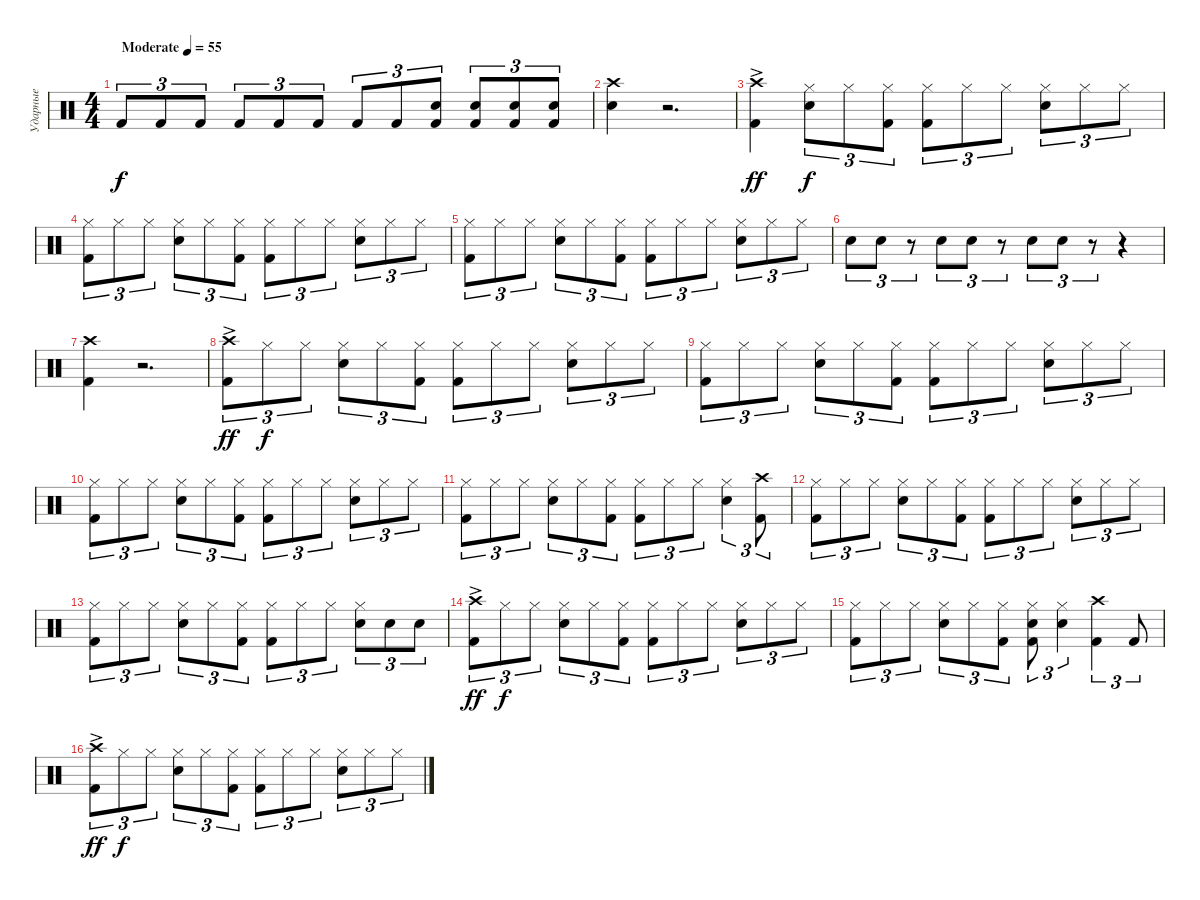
\track ("Ударные" "Ударные") {instrument percussion}
\staff
\articulation defaults
\ts (4 4)
\tempo (55 "Moderate")
\clef neutral
\ks c "Kick (hit) 2".8{tu (3 2) dy f} "Kick (hit) 2".8{tu (3 2)} "Kick (hit) 2".8{tu (3 2)} "Kick (hit) 2".8{tu (3 2)} "Kick (hit) 2".8{tu (3 2)} "Kick (hit) 2".8{tu (3 2)} "Kick (hit) 2".8{tu (3 2)} "Kick (hit) 2".8{tu (3 2)}
("Kick (hit) 2" "Snare (hit) 2").8{tu (3 2)} ("Kick (hit) 2" "Snare (hit) 2").8{tu (3 2)} ("Kick (hit) 2" "Snare (hit) 2").8{tu (3 2)} ("Kick (hit) 2" "Snare (hit) 2").8{tu (3 2)} |
("Snare (hit) 2" "Crash high (hit)").4 r.2{d} |
("Kick (hit) 2" "Crash high (hit)"{ac}).4{dy ff} ("Snare (hit) 2" "Hi-Hat (closed)").8{tu (3 2) dy f} "Hi-Hat (closed)".8{tu (3 2)} ("Kick (hit) 2" "Hi-Hat (closed)").8{tu (3 2)} ("Kick (hit) 2" "Hi-Hat (closed)").8{tu (3 2)} "Hi-Hat (closed)".8{tu (3 2)} "Hi-Hat (closed)".8{tu (3 2)} ("Snare (hit) 2" "Hi-Hat (closed)").8{tu (3 2)} "Hi-Hat (closed)".8{tu (3 2)} "Hi-Hat (closed)".8{tu (3 2)} |
("Kick (hit) 2" "Hi-Hat (closed)").8{tu (3 2)} "Hi-Hat (closed)".8{tu (3 2)} "Hi-Hat (closed)".8{tu (3 2)} ("Snare (hit) 2" "Hi-Hat (closed)").8{tu (3 2)} "Hi-Hat (closed)".8{tu (3 2)} ("Kick (hit) 2" "Hi-Hat (closed)").8{tu (3 2)} ("Kick (hit) 2" "Hi-Hat (closed)").8{tu (3 2)} "Hi-Hat (closed)".8{tu (3 2)} "Hi-Hat (closed)".8{tu (3 2)} ("Snare (hit) 2" "Hi-Hat (closed)").8{tu (3 2)} "Hi-Hat (closed)".8{tu (3 2)} "Hi-Hat (closed)".8{tu (3 2)} |
("Kick (hit) 2" "Hi-Hat (closed)").8{tu (3 2)} "Hi-Hat (closed)".8{tu (3 2)} "Hi-Hat (closed)".8{tu (3 2)} ("Snare (hit) 2" "Hi-Hat (closed)").8{tu (3 2)} "Hi-Hat (closed)".8{tu (3 2)} ("Kick (hit) 2" "Hi-Hat (closed)").8{tu (3 2)} ("Kick (hit) 2" "Hi-Hat (closed)").8{tu (3 2)} "Hi-Hat (closed)".8{tu (3 2)} "Hi-Hat (closed)".8{tu (3 2)} ("Snare (hit) 2" "Hi-Hat (closed)").8{tu (3 2)} "Hi-Hat (closed)".8{tu (3 2)} "Hi-Hat (closed)".8{tu (3 2)} |
"Snare (hit) 2".8{tu (3 2)} "Snare (hit) 2".8{tu (3 2)} r.8{tu (3 2)} "Snare (hit) 2".8{tu (3 2)} "Snare (hit) 2".8{tu (3 2)} r.8{tu (3 2)} "Snare (hit) 2".8{tu (3 2)} "Snare (hit) 2".8{tu (3 2)} r.8{tu (3 2)} r.4 |
("Kick (hit) 2" "Crash high (hit)").4 r.2{d} |
("Kick (hit) 2" "Crash high (hit)"{ac}).8{tu (3 2) dy ff} "Hi-Hat (closed)".8{tu (3 2) dy f} "Hi-Hat (closed)".8{tu (3 2)} ("Snare (hit) 2" "Hi-Hat (closed)").8{tu (3 2)} "Hi-Hat (closed)".8{tu (3 2)} ("Kick (hit) 2" "Hi-Hat (closed)").8{tu (3 2)} ("Kick (hit) 2" "Hi-Hat (closed)").8{tu (3 2)} "Hi-Hat (closed)".8{tu (3 2)} "Hi-Hat (closed)".8{tu (3 2)} ("Snare (hit) 2" "Hi-Hat (closed)").8{tu (3 2)} "Hi-Hat (closed)".8{tu (3 2)} "Hi-Hat (closed)".8{tu (3 2)} |
("Kick (hit) 2" "Hi-Hat (closed)").8{tu (3 2)} "Hi-Hat (closed)".8{tu (3 2)} "Hi-Hat (closed)".8{tu (3 2)} ("Snare (hit) 2" "Hi-Hat (closed)").8{tu (3 2)} "Hi-Hat (closed)".8{tu (3 2)} ("Kick (hit) 2" "Hi-Hat (closed)").8{tu (3 2)} ("Kick (hit) 2" "Hi-Hat (closed)").8{tu (3 2)} "Hi-Hat (closed)".8{tu (3 2)} "Hi-Hat (closed)".8{tu (3 2)} ("Snare (hit) 2" "Hi-Hat (closed)").8{tu (3 2)} "Hi-Hat (closed)".8{tu (3 2)} "Hi-Hat (closed)".8{tu (3 2)} |
("Kick (hit) 2" "Hi-Hat (closed)").8{tu (3 2)} "Hi-Hat (closed)".8{tu (3 2)} "Hi-Hat (closed)".8{tu (3 2)} ("Snare (hit) 2" "Hi-Hat (closed)").8{tu (3 2)} "Hi-Hat (closed)".8{tu (3 2)} ("Kick (hit) 2" "Hi-Hat (closed)").8{tu (3 2)} ("Kick (hit) 2" "Hi-Hat (closed)").8{tu (3 2)} "Hi-Hat (closed)".8{tu (3 2)} "Hi-Hat (closed)".8{tu (3 2)} ("Snare (hit) 2" "Hi-Hat (closed)").8{tu (3 2)} "Hi-Hat (closed)".8{tu (3 2)} "Hi-Hat (closed)".8{tu (3 2)} |
("Kick (hit) 2" "Hi-Hat (closed)").8{tu (3 2)} "Hi-Hat (closed)".8{tu (3 2)} "Hi-Hat (closed)".8{tu (3 2)} ("Snare (hit) 2" "Hi-Hat (closed)").8{tu (3 2)} "Hi-Hat (closed)".8{tu (3 2)} ("Kick (hit) 2" "Hi-Hat (closed)").8{tu (3 2)} ("Kick (hit) 2" "Hi-Hat (closed)").8{tu (3 2)} "Hi-Hat (closed)".8{tu (3 2)} "Hi-Hat (closed)".8{tu (3 2)} ("Snare (hit) 2" "Hi-Hat (closed)").4{tu (3 2)} ("Kick (hit) 2" "Crash high (hit)").8{tu (3 2)} |
("Kick (hit) 2" "Hi-Hat (closed)").8{tu (3 2)} "Hi-Hat (closed)".8{tu (3 2)} "Hi-Hat (closed)".8{tu (3 2)} ("Snare (hit) 2" "Hi-Hat (closed)").8{tu (3 2)} "Hi-Hat (closed)".8{tu (3 2)} ("Kick (hit) 2" "Hi-Hat (closed)").8{tu (3 2)} ("Kick (hit) 2" "Hi-Hat (closed)").8{tu (3 2)} "Hi-Hat (closed)".8{tu (3 2)} "Hi-Hat (closed)".8{tu (3 2)} ("Snare (hit) 2" "Hi-Hat (closed)").8{tu (3 2)} "Hi-Hat (closed)".8{tu (3 2)} "Hi-Hat (closed)".8{tu (3 2)} |
("Kick (hit) 2" "Hi-Hat (closed)").8{tu (3 2)} "Hi-Hat (closed)".8{tu (3 2)} "Hi-Hat (closed)".8{tu (3 2)} ("Snare (hit) 2" "Hi-Hat (closed)").8{tu (3 2)} "Hi-Hat (closed)".8{tu (3 2)} ("Kick (hit) 2" "Hi-Hat (closed)").8{tu (3 2)} ("Kick (hit) 2" "Hi-Hat (closed)").8{tu (3 2)} "Hi-Hat (closed)".8{tu (3 2)} "Hi-Hat (closed)".8{tu (3 2)} ("Snare (hit) 2" "Hi-Hat (closed)").8{tu (3 2)} "Snare (hit) 2".8{tu (3 2)} "Snare (hit) 2".8{tu (3 2)} |
("Kick (hit) 2" "Crash high (hit)"{ac}).8{tu (3 2) dy ff} "Hi-Hat (closed)".8{tu (3 2) dy f} "Hi-Hat (closed)".8{tu (3 2)} ("Snare (hit) 2" "Hi-Hat (closed)").8{tu (3 2)} "Hi-Hat (closed)".8{tu (3 2)} ("Kick (hit) 2" "Hi-Hat (closed)").8{tu (3 2)} ("Kick (hit) 2" "Hi-Hat (closed)").8{tu (3 2)} "Hi-Hat (closed)".8{tu (3 2)} "Hi-Hat (closed)".8{tu (3 2)} ("Snare (hit) 2" "Hi-Hat (closed)").8{tu (3 2)} "Hi-Hat (closed)".8{tu (3 2)} "Hi-Hat (closed)".8{tu (3 2)} |
("Kick (hit) 2" "Hi-Hat (closed)").8{tu (3 2)} "Hi-Hat (closed)".8{tu (3 2)} "Hi-Hat (closed)".8{tu (3 2)} ("Snare (hit) 2" "Hi-Hat (closed)").8{tu (3 2)} "Hi-Hat (closed)".8{tu (3 2)} ("Kick (hit) 2" "Hi-Hat (closed)").8{tu (3 2)} ("Kick (hit) 2" "Snare (hit) 2" "Hi-Hat (closed)").8{tu (3 2)} ("Snare (hit) 2" "Hi-Hat (closed)").4{tu (3 2)} ("Kick (hit) 2" "Crash high (hit)").4{tu (3 2)} "Kick (hit) 2".8{tu (3 2)} |
("Kick (hit) 2" "Crash high (hit)"{ac}).8{tu (3 2) dy ff} "Hi-Hat (closed)".8{tu (3 2) dy f} "Hi-Hat (closed)".8{tu (3 2)} ("Snare (hit) 2" "Hi-Hat (closed)").8{tu (3 2)} "Hi-Hat (closed)".8{tu (3 2)} ("Kick (hit) 2" "Hi-Hat (closed)").8{tu (3 2)} ("Kick (hit) 2" "Hi-Hat (closed)").8{tu (3 2)} "Hi-Hat (closed)".8{tu (3 2)} "Hi-Hat (closed)".8{tu (3 2)} ("Snare (hit) 2" "Hi-Hat (closed)").8{tu (3 2)} "Hi-Hat (closed)".8{tu (3 2)} "Hi-Hat (closed)".8{tu (3 2)}
